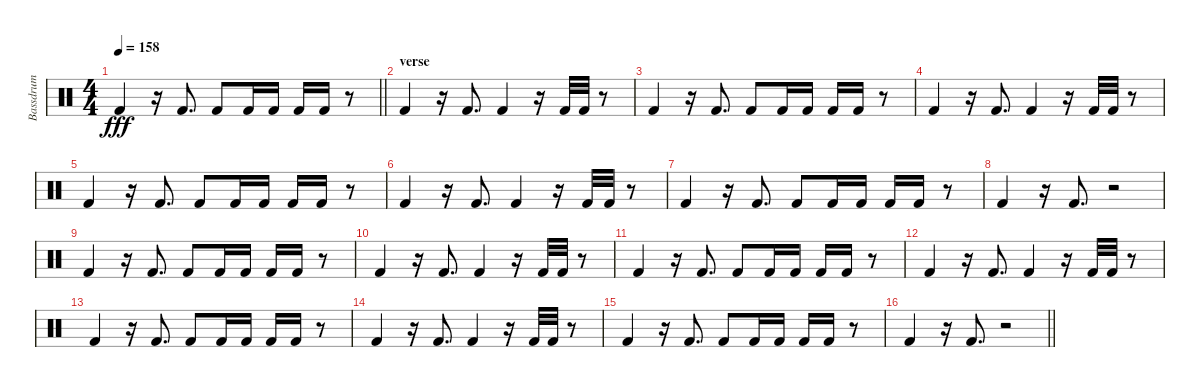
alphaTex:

\track ("Bassdrum" "Bassdrum") {instrument percussion}
\staff {score}
\articulation defaults
\ts (4 4)
\tempo 158
\clef neutral
\barLineRight lightlight
\ks c "Kick (hit) 2".4{dy fff}
r.16 "Kick (hit) 2".8{d} "Kick (hit) 2".8 "Kick (hit) 2".16 "Kick (hit) 2".16 "Kick (hit) 2".16 "Kick (hit) 2".16 r.8 |
\section ("" "verse")
"Kick (hit) 2".4 r.16 "Kick (hit) 2".8{d} "Kick (hit) 2".4 r.16 "Kick (hit) 2".32 "Kick (hit) 2".32 r.8 |
"Kick (hit) 2".4 r.16 "Kick (hit) 2".8{d} "Kick (hit) 2".8 "Kick (hit) 2".16 "Kick (hit) 2".16 "Kick (hit) 2".16 "Kick (hit) 2".16 r.8 |
"Kick (hit) 2".4 r.16 "Kick (hit) 2".8{d} "Kick (hit) 2".4 r.16 "Kick (hit) 2".32 "Kick (hit) 2".32 r.8 |
"Kick (hit) 2".4 r.16 "Kick (hit) 2".8{d} "Kick (hit) 2".8 "Kick (hit) 2".16 "Kick (hit) 2".16 "Kick (hit) 2".16 "Kick (hit) 2".16 r.8 |
"Kick (hit) 2".4 r.16 "Kick (hit) 2".8{d} "Kick (hit) 2".4 r.16 "Kick (hit) 2".32 "Kick (hit) 2".32 r.8 |
"Kick (hit) 2".4 r.16 "Kick (hit) 2".8{d} "Kick (hit) 2".8 "Kick (hit) 2".16 "Kick (hit) 2".16 "Kick (hit) 2".16 "Kick (hit) 2".16 r.8 |
"Kick (hit) 2".4 r.16 "Kick (hit) 2".8{d} r.2 |
"Kick (hit) 2".4 r.16 "Kick (hit) 2".8{d} "Kick (hit) 2".8 "Kick (hit) 2".16 "Kick (hit) 2".16 "Kick (hit) 2".16 "Kick (hit) 2".16 r.8 |
"Kick (hit) 2".4 r.16 "Kick (hit) 2".8{d} "Kick (hit) 2".4 r.16 "Kick (hit) 2".32 "Kick (hit) 2".32 r.8 |
"Kick (hit) 2".4 r.16 "Kick (hit) 2".8{d} "Kick (hit) 2".8 "Kick (hit) 2".16 "Kick (hit) 2".16 "Kick (hit) 2".16 "Kick (hit) 2".16 r.8 |
"Kick (hit) 2".4 r.16 "Kick (hit) 2".8{d} "Kick (hit) 2".4 r.16 "Kick (hit) 2".32 "Kick (hit) 2".32 r.8 |
"Kick (hit) 2".4 r.16 "Kick (hit) 2".8{d} "Kick (hit) 2".8 "Kick (hit) 2".16 "Kick (hit) 2".16 "Kick (hit) 2".16 "Kick (hit) 2".16 r.8 |
"Kick (hit) 2".4 r.16 "Kick (hit) 2".8{d} "Kick (hit) 2".4 r.16 "Kick (hit) 2".32 "Kick (hit) 2".32 r.8 |
"Kick (hit) 2".4 r.16 "Kick (hit) 2".8{d} "Kick (hit) 2".8 "Kick (hit) 2".16 "Kick (hit) 2".16 "Kick (hit) 2".16 "Kick (hit) 2".16 r.8 |
\barLineRight lightlight "Kick (hit) 2".4
r.16 "Kick (hit) 2".8{d} r.2
